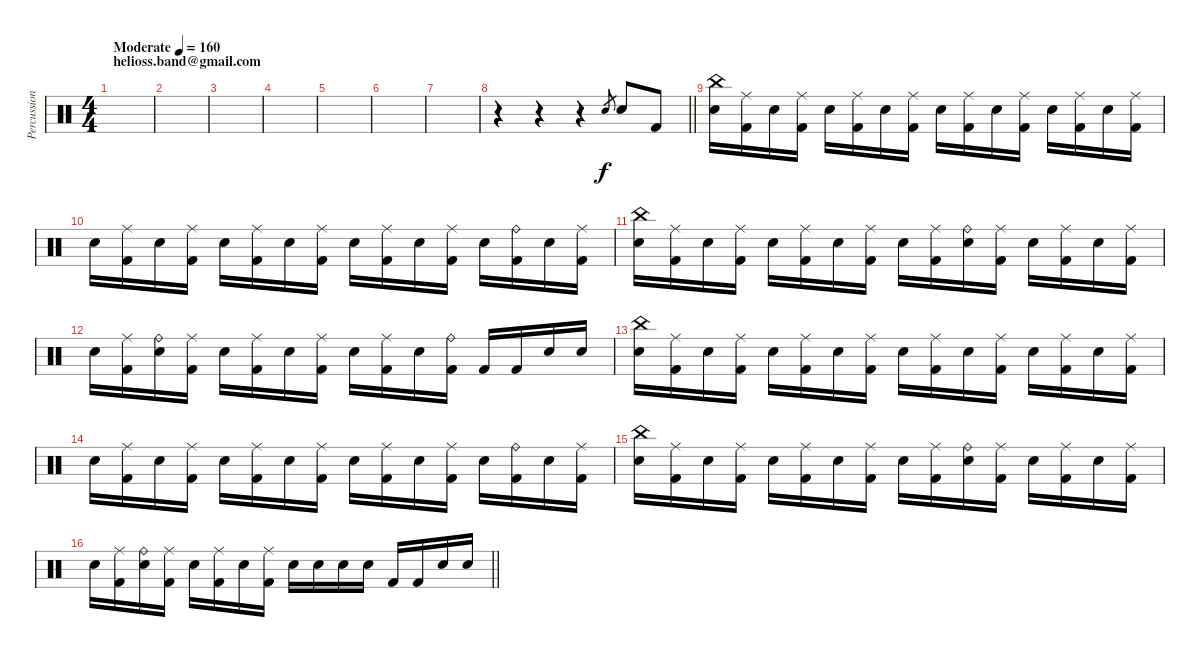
\track ("Percussions" "Percussion") {instrument percussion}
\staff {score}
\articulation defaults
\ts (4 4)
\section ("" "helioss.band@gmail.com")
\tempo (160 "Moderate")
\clef neutral
\ks c
|
|
|
|
|
|
|
\barLineRight lightlight
r.4 r.4 r.4 "Electric Snare (hit)".8{gr} "Electric Snare (hit)".8 "Kick (hit) 2".8 |
("China (hit)" "Electric Snare (hit)").16 ("Ride (middle)" "Kick (hit) 2").16 "Electric Snare (hit)".16 ("Ride (middle)" "Kick (hit) 2").16 "Electric Snare (hit)".16 ("Ride (middle)" "Kick (hit) 2").16 "Electric Snare (hit)".16 ("Ride (middle)" "Kick (hit) 2").16 "Electric Snare (hit)".16 ("Ride (middle)" "Kick (hit) 2").16 "Electric Snare (hit)".16 ("Ride (middle)" "Kick (hit) 2").16 "Electric Snare (hit)".16 ("Ride (middle)" "Kick (hit) 2").16 "Electric Snare (hit)".16 ("Ride (middle)" "Kick (hit) 2").16 |
"Electric Snare (hit)".16 ("Ride (middle)" "Kick (hit) 2").16 "Electric Snare (hit)".16 ("Ride (middle)" "Kick (hit) 2").16 "Electric Snare (hit)".16 ("Ride (middle)" "Kick (hit) 2").16 "Electric Snare (hit)".16 ("Ride (middle)" "Kick (hit) 2").16 "Electric Snare (hit)".16 ("Ride (middle)" "Kick (hit) 2").16 "Electric Snare (hit)".16 ("Ride (middle)" "Kick (hit) 2").16 "Electric Snare (hit)".16 ("Ride (bell)" "Kick (hit) 2").16 "Electric Snare (hit)".16 ("Ride (middle)" "Kick (hit) 2").16 |
("China (hit)" "Electric Snare (hit)").16 ("Ride (middle)" "Kick (hit) 2").16 "Electric Snare (hit)".16 ("Ride (middle)" "Kick (hit) 2").16 "Electric Snare (hit)".16 ("Ride (middle)" "Kick (hit) 2").16 "Electric Snare (hit)".16 ("Ride (middle)" "Kick (hit) 2").16 "Electric Snare (hit)".16 ("Ride (middle)" "Kick (hit) 2").16 ("Ride (bell)" "Electric Snare (hit)").16 ("Ride (middle)" "Kick (hit) 2").16 "Electric Snare (hit)".16 ("Ride (middle)" "Kick (hit) 2").16 "Electric Snare (hit)".16 ("Ride (middle)" "Kick (hit) 2").16 |
"Electric Snare (hit)".16 ("Ride (middle)" "Kick (hit) 2").16 ("Ride (bell)" "Electric Snare (hit)").16 ("Ride (middle)" "Kick (hit) 2").16 "Electric Snare (hit)".16 ("Ride (middle)" "Kick (hit) 2").16 "Electric Snare (hit)".16 ("Ride (middle)" "Kick (hit) 2").16 "Electric Snare (hit)".16 ("Ride (middle)" "Kick (hit) 2").16 "Electric Snare (hit)".16 ("Ride (bell)" "Kick (hit) 2").16 "Kick (hit) 2".16 "Kick (hit) 2".16 "Electric Snare (hit)".16 "Electric Snare (hit)".16 |
("China (hit)" "Electric Snare (hit)").16 ("Ride (middle)" "Kick (hit) 2").16 "Electric Snare (hit)".16 ("Ride (middle)" "Kick (hit) 2").16 "Electric Snare (hit)".16 ("Ride (middle)" "Kick (hit) 2").16 "Electric Snare (hit)".16 ("Ride (middle)" "Kick (hit) 2").16 "Electric Snare (hit)".16 ("Ride (middle)" "Kick (hit) 2").16 "Electric Snare (hit)".16 ("Ride (middle)" "Kick (hit) 2").16 "Electric Snare (hit)".16 ("Ride (middle)" "Kick (hit) 2").16 "Electric Snare (hit)".16 ("Ride (middle)" "Kick (hit) 2").16 |
"Electric Snare (hit)".16 ("Ride (middle)" "Kick (hit) 2").16 "Electric Snare (hit)".16 ("Ride (middle)" "Kick (hit) 2").16 "Electric Snare (hit)".16 ("Ride (middle)" "Kick (hit) 2").16 "Electric Snare (hit)".16 ("Ride (middle)" "Kick (hit) 2").16 "Electric Snare (hit)".16 ("Ride (middle)" "Kick (hit) 2").16 "Electric Snare (hit)".16 ("Ride (middle)" "Kick (hit) 2").16 "Electric Snare (hit)".16 ("Ride (bell)" "Kick (hit) 2").16 "Electric Snare (hit)".16 ("Ride (middle)" "Kick (hit) 2").16 |
("China (hit)" "Electric Snare (hit)").16 ("Ride (middle)" "Kick (hit) 2").16 "Electric Snare (hit)".16 ("Ride (middle)" "Kick (hit) 2").16 "Electric Snare (hit)".16 ("Ride (middle)" "Kick (hit) 2").16 "Electric Snare (hit)".16 ("Ride (middle)" "Kick (hit) 2").16 "Electric Snare (hit)".16 ("Ride (middle)" "Kick (hit) 2").16 ("Ride (bell)" "Electric Snare (hit)").16 ("Ride (middle)" "Kick (hit) 2").16 "Electric Snare (hit)".16 ("Ride (middle)" "Kick (hit) 2").16 "Electric Snare (hit)".16 ("Ride (middle)" "Kick (hit) 2").16 |
\barLineRight lightlight "Electric Snare (hit)".16
("Ride (middle)" "Kick (hit) 2").16 ("Ride (bell)" "Electric Snare (hit)").16 ("Ride (middle)" "Kick (hit) 2").16 "Electric Snare (hit)".16 ("Ride (middle)" "Kick (hit) 2").16 "Electric Snare (hit)".16 ("Ride (middle)" "Kick (hit) 2").16 "Electric Snare (hit)".16 "Electric Snare (hit)".16 "Electric Snare (hit)".16 "Electric Snare (hit)".16 "Kick (hit) 2".16 "Kick (hit) 2".16 "Electric Snare (hit)".16 "Electric Snare (hit)".16
